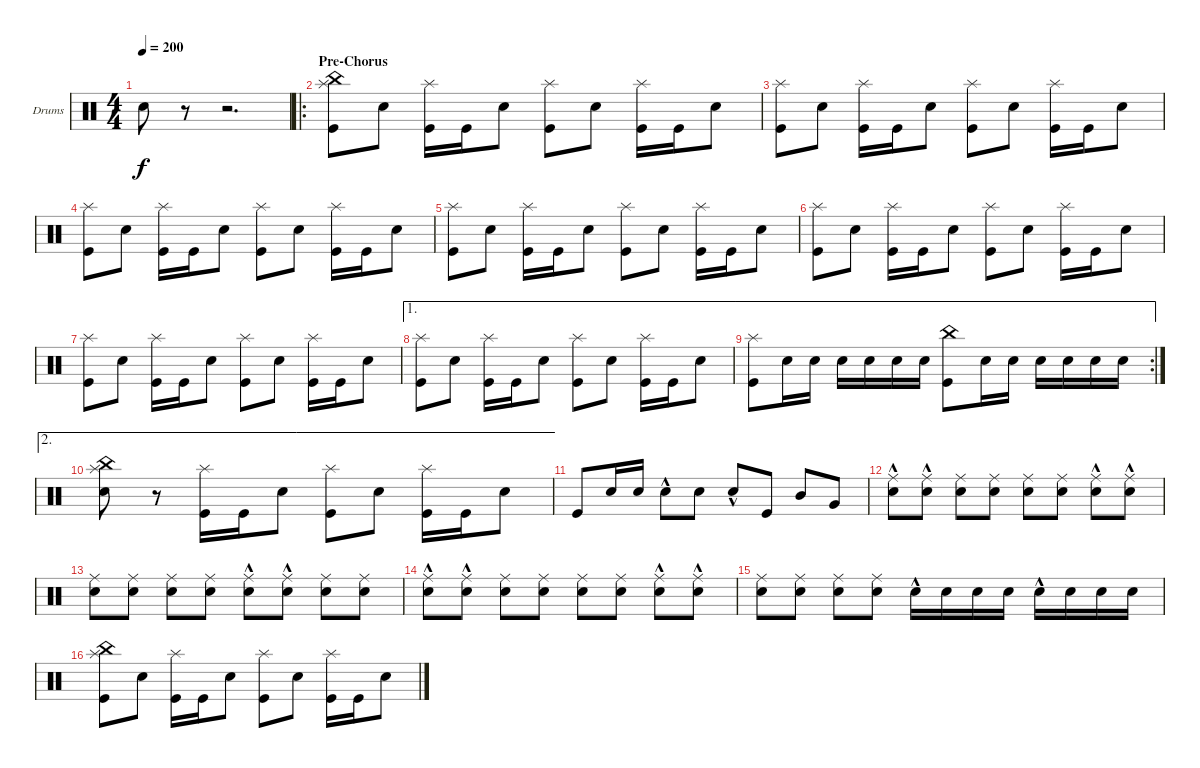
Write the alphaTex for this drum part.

\defaultSystemsLayout 4
\bracketExtendMode groupsimilarinstruments
\firstSystemTrackNameOrientation horizontal
\otherSystemsTrackNameOrientation horizontal
\track ("Drumkit" "Drums") {instrument percussion}
\staff {score}
\articulation defaults
\ts (4 4)
\tempo 200
\clef neutral
\ks c "Snare (hit) 2".8{dy f}
r.8 r.2{d} |
\ro
\section ("" "Pre-Chorus")
("Splash (hit)" "Kick (hit)" "China (hit)").8 "Snare (hit) 2".8 ("Splash (hit)" "Kick (hit)").16 "Kick (hit)".16 "Snare (hit) 2".8 ("Splash (hit)" "Kick (hit)").8 "Snare (hit) 2".8 ("Splash (hit)" "Kick (hit)").16 "Kick (hit)".16 "Snare (hit) 2".8 |
("Splash (hit)" "Kick (hit)").8 "Snare (hit) 2".8 ("Splash (hit)" "Kick (hit)").16 "Kick (hit)".16 "Snare (hit) 2".8 ("Splash (hit)" "Kick (hit)").8 "Snare (hit) 2".8 ("Splash (hit)" "Kick (hit)").16 "Kick (hit)".16 "Snare (hit) 2".8 |
("Splash (hit)" "Kick (hit)").8 "Snare (hit) 2".8 ("Splash (hit)" "Kick (hit)").16 "Kick (hit)".16 "Snare (hit) 2".8 ("Splash (hit)" "Kick (hit)").8 "Snare (hit) 2".8 ("Splash (hit)" "Kick (hit)").16 "Kick (hit)".16 "Snare (hit) 2".8 |
("Splash (hit)" "Kick (hit)").8 "Snare (hit) 2".8 ("Splash (hit)" "Kick (hit)").16 "Kick (hit)".16 "Snare (hit) 2".8 ("Splash (hit)" "Kick (hit)").8 "Snare (hit) 2".8 ("Splash (hit)" "Kick (hit)").16 "Kick (hit)".16 "Snare (hit) 2".8 |
("Splash (hit)" "Kick (hit)").8 "Snare (hit) 2".8 ("Splash (hit)" "Kick (hit)").16 "Kick (hit)".16 "Snare (hit) 2".8 ("Splash (hit)" "Kick (hit)").8 "Snare (hit) 2".8 ("Splash (hit)" "Kick (hit)").16 "Kick (hit)".16 "Snare (hit) 2".8 |
("Splash (hit)" "Kick (hit)").8 "Snare (hit) 2".8 ("Splash (hit)" "Kick (hit)").16 "Kick (hit)".16 "Snare (hit) 2".8 ("Splash (hit)" "Kick (hit)").8 "Snare (hit) 2".8 ("Splash (hit)" "Kick (hit)").16 "Kick (hit)".16 "Snare (hit) 2".8 |
\ae 1
("Splash (hit)" "Kick (hit)").8 "Snare (hit) 2".8 ("Splash (hit)" "Kick (hit)").16 "Kick (hit)".16 "Snare (hit) 2".8 ("Splash (hit)" "Kick (hit)").8 "Snare (hit) 2".8 ("Splash (hit)" "Kick (hit)").16 "Kick (hit)".16 "Snare (hit) 2".8 |
\ae 1
\rc 2
("Splash (hit)" "Kick (hit)").8 "Snare (hit) 2".16 "Snare (hit) 2".16 "Snare (hit) 2".16 "Snare (hit) 2".16 "Snare (hit) 2".16 "Snare (hit) 2".16 ("Kick (hit)" "China (hit)").8 "Snare (hit) 2".16 "Snare (hit) 2".16 "Snare (hit) 2".16 "Snare (hit) 2".16 "Snare (hit) 2".16 "Snare (hit) 2".16 |
\ae 2
("Splash (hit)" "China (hit)" "Snare (hit) 2").8 r.8 ("Splash (hit)" "Kick (hit)").16 "Kick (hit)".16 "Snare (hit) 2".8 ("Splash (hit)" "Kick (hit)").8 "Snare (hit) 2".8 ("Splash (hit)" "Kick (hit)").16 "Kick (hit)".16 "Snare (hit) 2".8 |
"Kick (hit)".8 "Snare (hit) 2".16 "Snare (hit) 2".16 "Snare (hit) 2"{hac}.8 "Snare (hit) 2".8 "Snare (hit) 2"{hac}.8 "Kick (hit)".8 "Mid Tom (hit)".8 "Very Low Tom (hit)".8 |
("Ride (middle)" "Snare (hit) 2"{hac}).8 ("Ride (middle)" "Snare (hit) 2"{hac}).8 ("Ride (middle)" "Snare (hit) 2").8 ("Ride (middle)" "Snare (hit) 2").8 ("Ride (middle)" "Snare (hit) 2").8 ("Ride (middle)" "Snare (hit) 2").8 ("Ride (middle)" "Snare (hit) 2"{hac}).8 ("Ride (middle)" "Snare (hit) 2"{hac}).8 |
("Ride (middle)" "Snare (hit) 2").8 ("Ride (middle)" "Snare (hit) 2").8 ("Ride (middle)" "Snare (hit) 2").8 ("Ride (middle)" "Snare (hit) 2").8 ("Ride (middle)" "Snare (hit) 2"{hac}).8 ("Ride (middle)" "Snare (hit) 2"{hac}).8 ("Ride (middle)" "Snare (hit) 2").8 ("Ride (middle)" "Snare (hit) 2").8 |
("Ride (middle)" "Snare (hit) 2"{hac}).8 ("Ride (middle)" "Snare (hit) 2"{hac}).8 ("Ride (middle)" "Snare (hit) 2").8 ("Ride (middle)" "Snare (hit) 2").8 ("Ride (middle)" "Snare (hit) 2").8 ("Ride (middle)" "Snare (hit) 2").8 ("Ride (middle)" "Snare (hit) 2"{hac}).8 ("Ride (middle)" "Snare (hit) 2"{hac}).8 |
("Ride (middle)" "Snare (hit) 2").8 ("Ride (middle)" "Snare (hit) 2").8 ("Ride (middle)" "Snare (hit) 2").8 ("Ride (middle)" "Snare (hit) 2").8 "Snare (hit) 2"{hac}.16 "Snare (hit) 2".16 "Snare (hit) 2".16 "Snare (hit) 2".16 "Snare (hit) 2"{hac}.16 "Snare (hit) 2".16 "Snare (hit) 2".16 "Snare (hit) 2".16 |
("Splash (hit)" "Kick (hit)" "China (hit)").8 "Snare (hit) 2".8 ("Splash (hit)" "Kick (hit)").16 "Kick (hit)".16 "Snare (hit) 2".8 ("Splash (hit)" "Kick (hit)").8 "Snare (hit) 2".8 ("Splash (hit)" "Kick (hit)").16 "Kick (hit)".16 "Snare (hit) 2".8
